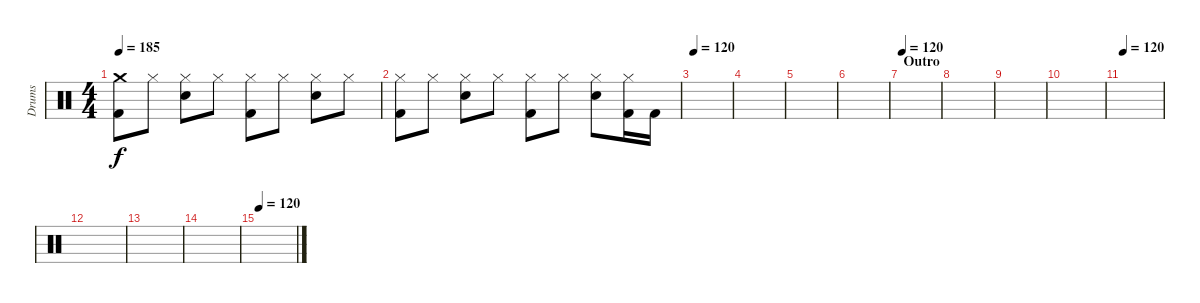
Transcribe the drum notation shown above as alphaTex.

\track ("Drums" "Drums") {instrument percussion}
\staff {score}
\articulation defaults
\ts (4 4)
\tempo 185
\clef neutral
\ks c
("Crash medium (hit)" "Kick (hit) 2").8{dy f} "Hi-Hat (closed)".8 ("Hi-Hat (closed)" "Electric Snare (hit)").8 "Hi-Hat (closed)".8 ("Hi-Hat (closed)" "Kick (hit) 2").8 "Hi-Hat (closed)".8 ("Hi-Hat (closed)" "Electric Snare (hit)").8 "Hi-Hat (closed)".8 |
("Hi-Hat (closed)" "Kick (hit) 2").8 "Hi-Hat (closed)".8 ("Hi-Hat (closed)" "Electric Snare (hit)").8 "Hi-Hat (closed)".8 ("Hi-Hat (closed)" "Kick (hit) 2").8 "Hi-Hat (closed)".8 ("Hi-Hat (closed)" "Electric Snare (hit)").8 ("Hi-Hat (closed)" "Kick (hit) 2").16 "Kick (hit) 2".16 |
\tempo 120
|
|
|
|
\section ("" "Outro")
\tempo 120
|
|
|
|
\tempo 120
|
|
|
|
\tempo 120
